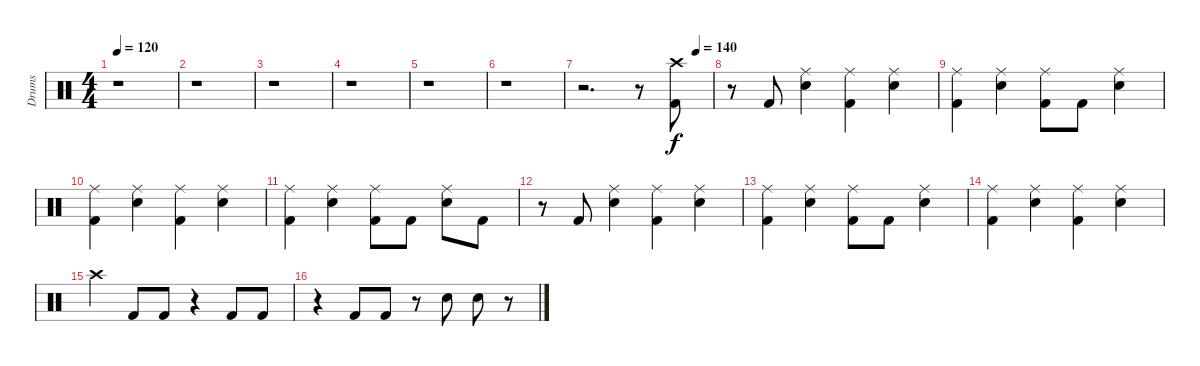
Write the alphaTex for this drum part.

\track ("Drums" "Drums") {instrument percussion}
\staff {score}
\articulation defaults
\ts (4 4)
\tempo 120
\clef neutral
\ks c
r.1{dy f} |
r.1 |
r.1 |
r.1 |
r.1 |
r.1 |
\tempo (140 0.875)
r.2{d} r.8 ("Crash high (hit)" "Kick (hit) 2").8 |
r.8 "Kick (hit) 2".8 ("Ride (middle)" "Electric Snare (hit)").4 ("Ride (middle)" "Kick (hit) 2").4 ("Ride (middle)" "Electric Snare (hit)").4 |
("Ride (middle)" "Kick (hit) 2").4 ("Ride (middle)" "Electric Snare (hit)").4 ("Ride (middle)" "Kick (hit) 2").8 "Kick (hit) 2".8 ("Ride (middle)" "Electric Snare (hit)").4 |
("Ride (middle)" "Kick (hit) 2").4 ("Ride (middle)" "Electric Snare (hit)").4 ("Ride (middle)" "Kick (hit) 2").4 ("Ride (middle)" "Electric Snare (hit)").4 |
("Ride (middle)" "Kick (hit) 2").4 ("Ride (middle)" "Electric Snare (hit)").4 ("Ride (middle)" "Kick (hit) 2").8 "Kick (hit) 2".8 ("Ride (middle)" "Electric Snare (hit)").8 "Kick (hit) 2".8 |
r.8 "Kick (hit) 2".8 ("Ride (middle)" "Electric Snare (hit)").4 ("Ride (middle)" "Kick (hit) 2").4 ("Ride (middle)" "Electric Snare (hit)").4 |
("Ride (middle)" "Kick (hit) 2").4 ("Ride (middle)" "Electric Snare (hit)").4 ("Ride (middle)" "Kick (hit) 2").8 "Kick (hit) 2".8 ("Ride (middle)" "Electric Snare (hit)").4 |
("Ride (middle)" "Kick (hit) 2").4 ("Ride (middle)" "Electric Snare (hit)").4 ("Ride (middle)" "Kick (hit) 2").4 ("Ride (middle)" "Electric Snare (hit)").4 |
"Crash high (hit)".4 "Kick (hit) 2".8 "Kick (hit) 2".8 r.4 "Kick (hit) 2".8 "Kick (hit) 2".8 |
r.4 "Kick (hit) 2".8 "Kick (hit) 2".8 r.8 "Electric Snare (hit)".8 "Electric Snare (hit)".8 r.8
